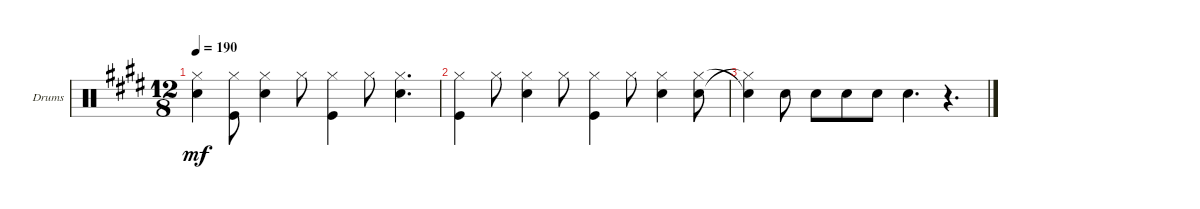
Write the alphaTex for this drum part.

\defaultSystemsLayout 4
\bracketExtendMode groupsimilarinstruments
\firstSystemTrackNameOrientation horizontal
\otherSystemsTrackNameOrientation horizontal
\track ("Drumkit" "Drums") {instrument percussion}
\staff {score}
\articulation defaults
\ts (12 8)
\tempo 190
\clef neutral
\ks c#minor
("Hi-Hat (closed)" "Snare (hit) 2"{t}).4{dy mf} ("Hi-Hat (closed)" "Kick (hit)").8 ("Snare (hit) 2" "Hi-Hat (closed)").4 "Hi-Hat (closed)".8 ("Hi-Hat (closed)" "Kick (hit)").4 "Hi-Hat (closed)".8 ("Hi-Hat (closed)" "Snare (hit) 2").4{d} |
("Hi-Hat (closed)" "Kick (hit)").4 "Hi-Hat (closed)".8 ("Hi-Hat (closed)" "Snare (hit) 2").4 "Hi-Hat (closed)".8 ("Hi-Hat (closed)" "Kick (hit)").4 "Hi-Hat (closed)".8 ("Hi-Hat (closed)" "Snare (hit) 2").4 ("Snare (hit) 2" "Hi-Hat (closed)").8 |
("Hi-Hat (closed)"{t} "Snare (hit) 2"{t}).4 "Snare (hit) 2".8 "Snare (hit) 2".8 "Snare (hit) 2".8 "Snare (hit) 2".8 "Snare (hit) 2".4{d} r.4{d}
